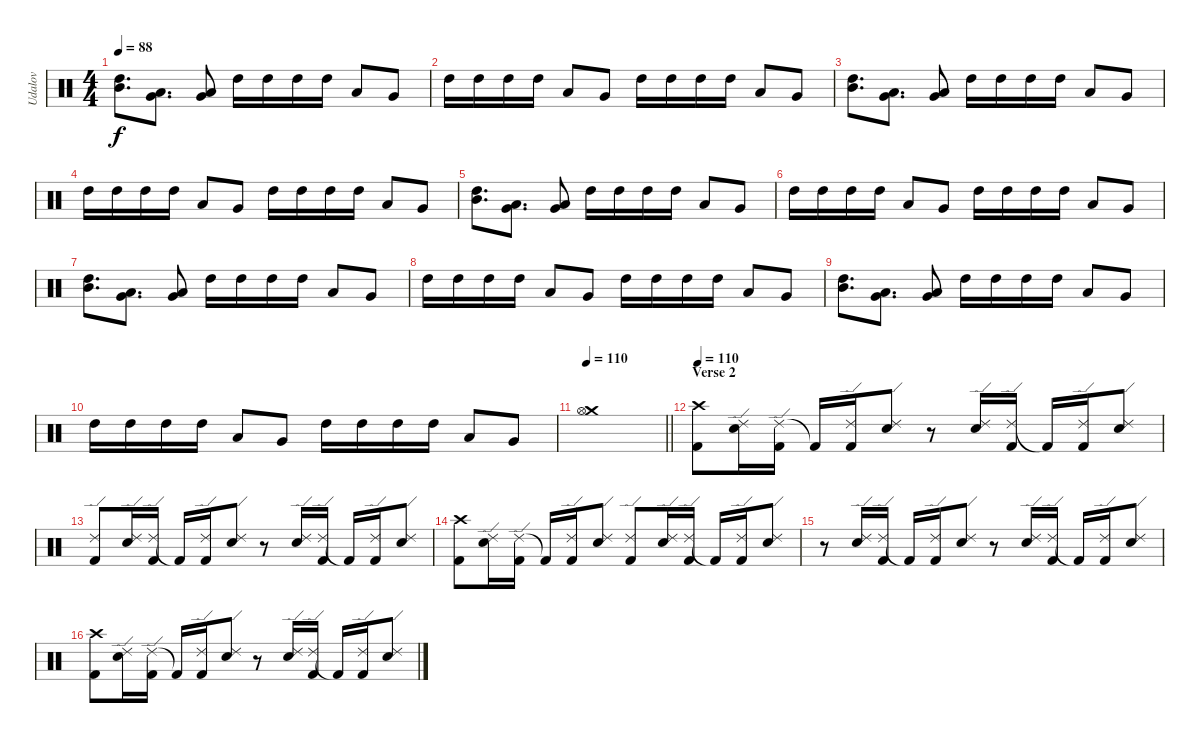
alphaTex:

\track ("Udalov" "Udalov") {instrument percussion}
\staff {score}
\articulation defaults
\ts (4 4)
\tempo 88
\clef neutral
\ks c
("High Tom (hit)" "Mid Tom (hit)").8{d dy f} ("Low Tom (hit)" "Very Low Tom (hit)").8{d} ("Very Low Tom (hit)" "Low Floor Tom (hit)").8 "High Tom (hit)".16 "High Tom (hit)".16 "High Tom (hit)".16 "High Tom (hit)".16 "Low Tom (hit)".8 "Very Low Tom (hit)".8 |
"High Tom (hit)".16 "High Tom (hit)".16 "High Tom (hit)".16 "High Tom (hit)".16 "Low Tom (hit)".8 "Very Low Tom (hit)".8 "High Tom (hit)".16 "High Tom (hit)".16 "High Tom (hit)".16 "High Tom (hit)".16 "Low Tom (hit)".8 "Very Low Tom (hit)".8 |
("High Tom (hit)" "Mid Tom (hit)").8{d} ("Low Tom (hit)" "Very Low Tom (hit)").8{d} ("Very Low Tom (hit)" "Low Floor Tom (hit)").8 "High Tom (hit)".16 "High Tom (hit)".16 "High Tom (hit)".16 "High Tom (hit)".16 "Low Tom (hit)".8 "Very Low Tom (hit)".8 |
"High Tom (hit)".16 "High Tom (hit)".16 "High Tom (hit)".16 "High Tom (hit)".16 "Low Tom (hit)".8 "Very Low Tom (hit)".8 "High Tom (hit)".16 "High Tom (hit)".16 "High Tom (hit)".16 "High Tom (hit)".16 "Low Tom (hit)".8 "Very Low Tom (hit)".8 |
("High Tom (hit)" "Mid Tom (hit)").8{d} ("Low Tom (hit)" "Very Low Tom (hit)").8{d} ("Very Low Tom (hit)" "Low Floor Tom (hit)").8 "High Tom (hit)".16 "High Tom (hit)".16 "High Tom (hit)".16 "High Tom (hit)".16 "Low Tom (hit)".8 "Very Low Tom (hit)".8 |
"High Tom (hit)".16 "High Tom (hit)".16 "High Tom (hit)".16 "High Tom (hit)".16 "Low Tom (hit)".8 "Very Low Tom (hit)".8 "High Tom (hit)".16 "High Tom (hit)".16 "High Tom (hit)".16 "High Tom (hit)".16 "Low Tom (hit)".8 "Very Low Tom (hit)".8 |
("High Tom (hit)" "Mid Tom (hit)").8{d} ("Low Tom (hit)" "Very Low Tom (hit)").8{d} ("Very Low Tom (hit)" "Low Floor Tom (hit)").8 "High Tom (hit)".16 "High Tom (hit)".16 "High Tom (hit)".16 "High Tom (hit)".16 "Low Tom (hit)".8 "Very Low Tom (hit)".8 |
"High Tom (hit)".16 "High Tom (hit)".16 "High Tom (hit)".16 "High Tom (hit)".16 "Low Tom (hit)".8 "Very Low Tom (hit)".8 "High Tom (hit)".16 "High Tom (hit)".16 "High Tom (hit)".16 "High Tom (hit)".16 "Low Tom (hit)".8 "Very Low Tom (hit)".8 |
("High Tom (hit)" "Mid Tom (hit)").8{d} ("Low Tom (hit)" "Very Low Tom (hit)").8{d} ("Very Low Tom (hit)" "Low Floor Tom (hit)").8 "High Tom (hit)".16 "High Tom (hit)".16 "High Tom (hit)".16 "High Tom (hit)".16 "Low Tom (hit)".8 "Very Low Tom (hit)".8 |
"High Tom (hit)".16 "High Tom (hit)".16 "High Tom (hit)".16 "High Tom (hit)".16 "Low Tom (hit)".8 "Very Low Tom (hit)".8 "High Tom (hit)".16 "High Tom (hit)".16 "High Tom (hit)".16 "High Tom (hit)".16 "Low Tom (hit)".8 "Very Low Tom (hit)".8 |
\tempo 110
\barLineRight lightlight
("Crash medium (hit)" "Hi-Hat (open)").1 |
\section ("" "Verse 2")
\tempo 110
("Crash high (hit)" "Kick (hit) 2").8 ("Ride (edge) 2" "Snare (hit) 2").16 ("Ride (edge) 2" "Kick (hit) 2").16 "Kick (hit) 2"{t}.16 ("Ride (edge) 2" "Kick (hit) 2").16 ("Ride (edge) 2" "Snare (hit) 2").8 r.8 ("Ride (edge) 2" "Snare (hit) 2").16 ("Ride (edge) 2" "Kick (hit) 2").16 "Kick (hit) 2"{t}.16 ("Ride (edge) 2" "Kick (hit) 2").16 ("Ride (edge) 2" "Snare (hit) 2").8 |
("Ride (edge) 2" "Kick (hit) 2").8 ("Ride (edge) 2" "Snare (hit) 2").16 ("Ride (edge) 2" "Kick (hit) 2").16 "Kick (hit) 2"{t}.16 ("Ride (edge) 2" "Kick (hit) 2").16 ("Ride (edge) 2" "Snare (hit) 2").8 r.8 ("Ride (edge) 2" "Snare (hit) 2").16 ("Ride (edge) 2" "Kick (hit) 2").16 "Kick (hit) 2"{t}.16 ("Ride (edge) 2" "Kick (hit) 2").16 ("Ride (edge) 2" "Snare (hit) 2").8 |
("Crash high (hit)" "Kick (hit) 2").8 ("Ride (edge) 2" "Snare (hit) 2").16 ("Ride (edge) 2" "Kick (hit) 2").16 "Kick (hit) 2"{t}.16 ("Ride (edge) 2" "Kick (hit) 2").16 ("Ride (edge) 2" "Snare (hit) 2").8 ("Ride (edge) 2" "Kick (hit) 2").8 ("Ride (edge) 2" "Snare (hit) 2").16 ("Ride (edge) 2" "Kick (hit) 2").16 "Kick (hit) 2"{t}.16 ("Ride (edge) 2" "Kick (hit) 2").16 ("Ride (edge) 2" "Snare (hit) 2").8 |
r.8 ("Ride (edge) 2" "Snare (hit) 2").16 ("Ride (edge) 2" "Kick (hit) 2").16 "Kick (hit) 2"{t}.16 ("Ride (edge) 2" "Kick (hit) 2").16 ("Ride (edge) 2" "Snare (hit) 2").8 r.8 ("Ride (edge) 2" "Snare (hit) 2").16 ("Ride (edge) 2" "Kick (hit) 2").16 "Kick (hit) 2"{t}.16 ("Ride (edge) 2" "Kick (hit) 2").16 ("Ride (edge) 2" "Snare (hit) 2").8 |
("Crash high (hit)" "Kick (hit) 2").8 ("Ride (edge) 2" "Snare (hit) 2").16 ("Ride (edge) 2" "Kick (hit) 2").16 "Kick (hit) 2"{t}.16 ("Ride (edge) 2" "Kick (hit) 2").16 ("Ride (edge) 2" "Snare (hit) 2").8 r.8 ("Ride (edge) 2" "Snare (hit) 2").16 ("Ride (edge) 2" "Kick (hit) 2").16 "Kick (hit) 2"{t}.16 ("Ride (edge) 2" "Kick (hit) 2").16 ("Ride (edge) 2" "Snare (hit) 2").8
